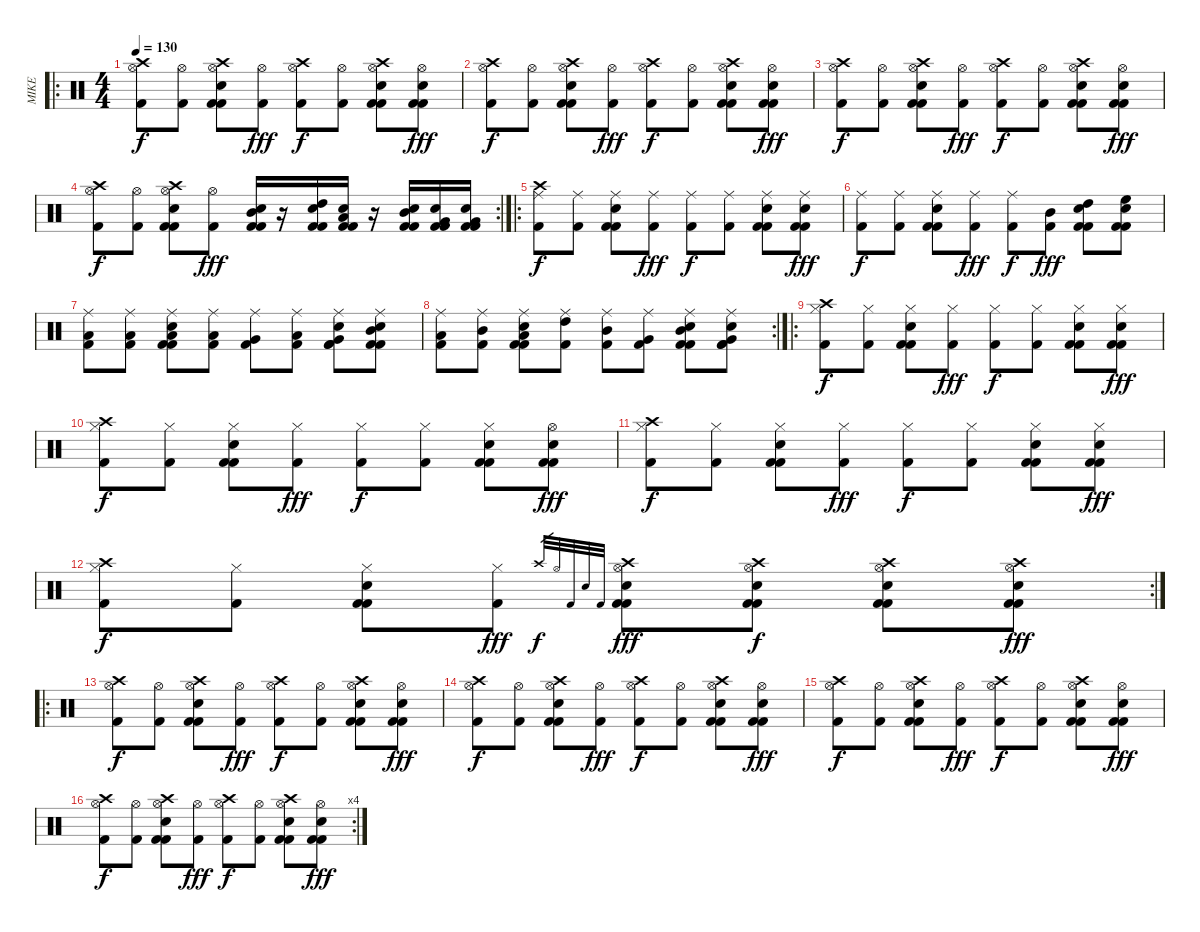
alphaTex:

\track ("MIKE" "MIKE") {instrument percussion}
\staff {score}
\articulation defaults
\ro
\ts (4 4)
\tempo 130
\clef neutral
\ks c
("Hi-Hat (open)" "Crash high (hit)" "Kick (hit) 2").8{dy f} ("Hi-Hat (open)" "Kick (hit) 2").8 ("Hi-Hat (open)" "Crash high (hit)" "Kick (hit) 2" "Electric Snare (hit)" "Kick (hit) 2").8 ("Hi-Hat (open)" "Kick (hit) 2").8{dy fff} ("Hi-Hat (open)" "Crash high (hit)" "Kick (hit) 2").8{dy f} ("Hi-Hat (open)" "Kick (hit) 2").8 ("Hi-Hat (open)" "Crash high (hit)" "Kick (hit) 2" "Electric Snare (hit)" "Kick (hit) 2").8 ("Hi-Hat (open)" "Kick (hit) 2" "Electric Snare (hit)" "Kick (hit) 2").8{dy fff} |
("Hi-Hat (open)" "Crash high (hit)" "Kick (hit) 2").8{dy f} ("Hi-Hat (open)" "Kick (hit) 2").8 ("Hi-Hat (open)" "Crash high (hit)" "Kick (hit) 2" "Electric Snare (hit)" "Kick (hit) 2").8 ("Hi-Hat (open)" "Kick (hit) 2").8{dy fff} ("Hi-Hat (open)" "Crash high (hit)" "Kick (hit) 2").8{dy f} ("Hi-Hat (open)" "Kick (hit) 2").8 ("Hi-Hat (open)" "Crash high (hit)" "Kick (hit) 2" "Electric Snare (hit)" "Kick (hit) 2").8 ("Hi-Hat (open)" "Kick (hit) 2" "Electric Snare (hit)" "Kick (hit) 2").8{dy fff} |
("Hi-Hat (open)" "Crash high (hit)" "Kick (hit) 2").8{dy f} ("Hi-Hat (open)" "Kick (hit) 2").8 ("Hi-Hat (open)" "Crash high (hit)" "Kick (hit) 2" "Electric Snare (hit)" "Kick (hit) 2").8 ("Hi-Hat (open)" "Kick (hit) 2").8{dy fff} ("Hi-Hat (open)" "Crash high (hit)" "Kick (hit) 2").8{dy f} ("Hi-Hat (open)" "Kick (hit) 2").8 ("Hi-Hat (open)" "Crash high (hit)" "Kick (hit) 2" "Electric Snare (hit)" "Kick (hit) 2").8 ("Hi-Hat (open)" "Kick (hit) 2" "Electric Snare (hit)" "Kick (hit) 2").8{dy fff} |
\rc 2
("Hi-Hat (open)" "Crash high (hit)" "Kick (hit) 2").8{dy f} ("Hi-Hat (open)" "Kick (hit) 2").8 ("Hi-Hat (open)" "Crash high (hit)" "Kick (hit) 2" "Electric Snare (hit)" "Kick (hit) 2").8 ("Hi-Hat (open)" "Kick (hit) 2").8{dy fff} ("Mid Tom (hit)" "Kick (hit) 2" "Electric Snare (hit)" "Kick (hit) 2").16 r.16 ("High Tom (hit)" "Kick (hit) 2" "Electric Snare (hit)" "Kick (hit) 2").16 ("Low Tom (hit)" "Kick (hit) 2" "Electric Snare (hit)" "Kick (hit) 2").16 r.16 ("Mid Tom (hit)" "Kick (hit) 2" "Electric Snare (hit)" "Kick (hit) 2").16 ("Very Low Tom (hit)" "Kick (hit) 2" "Electric Snare (hit)" "Kick (hit) 2").16 ("Very Low Tom (hit)" "Kick (hit) 2" "Electric Snare (hit)" "Kick (hit) 2").16 |
\ro
("Ride (middle)" "Crash high (hit)" "Kick (hit) 2").8{dy f} ("Ride (middle)" "Kick (hit) 2").8 ("Ride (middle)" "Kick (hit) 2" "Electric Snare (hit)" "Kick (hit) 2").8 ("Ride (middle)" "Kick (hit) 2").8{dy fff} ("Ride (middle)" "Kick (hit) 2").8{dy f} ("Ride (middle)" "Kick (hit) 2").8 ("Ride (middle)" "Kick (hit) 2" "Electric Snare (hit)" "Kick (hit) 2").8 ("Ride (middle)" "Kick (hit) 2" "Electric Snare (hit)" "Kick (hit) 2").8{dy fff} |
("Ride (middle)" "Kick (hit) 2").8{dy f} ("Ride (middle)" "Kick (hit) 2").8 ("Ride (middle)" "Kick (hit) 2" "Electric Snare (hit)" "Kick (hit) 2").8 ("Ride (middle)" "Kick (hit) 2").8{dy fff} ("Ride (middle)" "Kick (hit) 2").8{dy f} ("Mid Tom (hit)" "Kick (hit) 2").8{dy fff} ("High Tom (hit)" "Kick (hit) 2" "Electric Snare (hit)" "Kick (hit) 2").8 ("High Floor Tom (hit)" "Kick (hit) 2" "Electric Snare (hit)" "Kick (hit) 2").8 |
("Ride (middle)" "Low Floor Tom (hit)" "Kick (hit) 2").8 ("Ride (middle)" "Low Tom (hit)" "Kick (hit) 2").8 ("Ride (middle)" "Low Floor Tom (hit)" "Kick (hit) 2" "Electric Snare (hit)" "Kick (hit) 2").8 ("Ride (middle)" "Low Tom (hit)" "Kick (hit) 2").8 ("Ride (middle)" "Very Low Tom (hit)" "Kick (hit) 2").8 ("Ride (middle)" "Low Floor Tom (hit)" "Kick (hit) 2").8 ("Ride (middle)" "Very Low Tom (hit)" "Kick (hit) 2" "Electric Snare (hit)" "Kick (hit) 2").8 ("Ride (middle)" "Mid Tom (hit)" "Kick (hit) 2" "Electric Snare (hit)" "Kick (hit) 2").8 |
\rc 2
("Ride (middle)" "Low Tom (hit)" "Kick (hit) 2").8 ("Ride (middle)" "Mid Tom (hit)" "Kick (hit) 2").8 ("Ride (middle)" "Low Tom (hit)" "Kick (hit) 2" "Electric Snare (hit)" "Kick (hit) 2").8 ("Ride (middle)" "High Tom (hit)" "Kick (hit) 2").8 ("Ride (middle)" "Mid Tom (hit)" "Kick (hit) 2").8 ("Ride (middle)" "Very Low Tom (hit)" "Kick (hit) 2").8 ("Ride (middle)" "Mid Tom (hit)" "Kick (hit) 2" "Electric Snare (hit)" "Kick (hit) 2").8 ("Ride (middle)" "Very Low Tom (hit)" "Kick (hit) 2" "Electric Snare (hit)" "Kick (hit) 2").8 |
\ro
("Hi-Hat (closed)" "Crash high (hit)" "Kick (hit) 2").8{dy f} ("Hi-Hat (closed)" "Kick (hit) 2").8 ("Hi-Hat (closed)" "Kick (hit) 2" "Electric Snare (hit)" "Kick (hit) 2").8 ("Hi-Hat (closed)" "Kick (hit) 2").8{dy fff} ("Hi-Hat (closed)" "Kick (hit) 2").8{dy f} ("Hi-Hat (closed)" "Kick (hit) 2").8 ("Hi-Hat (closed)" "Kick (hit) 2" "Electric Snare (hit)" "Kick (hit) 2").8 ("Hi-Hat (closed)" "Kick (hit) 2" "Electric Snare (hit)" "Kick (hit) 2").8{dy fff} |
("Hi-Hat (closed)" "Crash high (hit)" "Kick (hit) 2").8{dy f} ("Hi-Hat (closed)" "Kick (hit) 2").8 ("Hi-Hat (closed)" "Kick (hit) 2" "Electric Snare (hit)" "Kick (hit) 2").8 ("Hi-Hat (closed)" "Kick (hit) 2").8{dy fff} ("Hi-Hat (closed)" "Kick (hit) 2").8{dy f} ("Hi-Hat (closed)" "Kick (hit) 2").8 ("Hi-Hat (closed)" "Kick (hit) 2" "Electric Snare (hit)" "Kick (hit) 2").8 ("Hi-Hat (open)" "Kick (hit) 2" "Electric Snare (hit)" "Kick (hit) 2").8{dy fff} |
("Hi-Hat (closed)" "Crash high (hit)" "Kick (hit) 2").8{dy f} ("Hi-Hat (closed)" "Kick (hit) 2").8 ("Hi-Hat (closed)" "Kick (hit) 2" "Electric Snare (hit)" "Kick (hit) 2").8 ("Hi-Hat (closed)" "Kick (hit) 2").8{dy fff} ("Hi-Hat (closed)" "Kick (hit) 2").8{dy f} ("Hi-Hat (closed)" "Kick (hit) 2").8 ("Hi-Hat (closed)" "Kick (hit) 2" "Electric Snare (hit)" "Kick (hit) 2").8 ("Hi-Hat (closed)" "Kick (hit) 2" "Electric Snare (hit)" "Kick (hit) 2").8{dy fff} |
\rc 2
("Hi-Hat (closed)" "Crash high (hit)" "Kick (hit) 2").8{dy f} ("Hi-Hat (closed)" "Kick (hit) 2").8 ("Hi-Hat (closed)" "Kick (hit) 2" "Electric Snare (hit)" "Kick (hit) 2").8 ("Hi-Hat (closed)" "Kick (hit) 2").8{dy fff} "Crash high (hit)".32{gr dy f} "Hi-Hat (open)".32{gr} "Kick (hit) 2".32{gr} "Electric Snare (hit)".32{gr} "Kick (hit) 2".32{gr} ("Crash high (hit)" "Hi-Hat (open)" "Kick (hit) 2" "Electric Snare (hit)" "Kick (hit) 2").8{dy fff} ("Crash high (hit)" "Hi-Hat (open)" "Kick (hit) 2" "Electric Snare (hit)" "Kick (hit) 2").8{dy f} ("Crash high (hit)" "Hi-Hat (open)" "Kick (hit) 2" "Electric Snare (hit)" "Kick (hit) 2").8 ("Crash high (hit)" "Hi-Hat (open)" "Kick (hit) 2" "Electric Snare (hit)" "Kick (hit) 2").8{dy fff} |
\ro
("Hi-Hat (open)" "Crash high (hit)" "Kick (hit) 2").8{dy f} ("Hi-Hat (open)" "Kick (hit) 2").8 ("Hi-Hat (open)" "Crash high (hit)" "Kick (hit) 2" "Electric Snare (hit)" "Kick (hit) 2").8 ("Hi-Hat (open)" "Kick (hit) 2").8{dy fff} ("Hi-Hat (open)" "Crash high (hit)" "Kick (hit) 2").8{dy f} ("Hi-Hat (open)" "Kick (hit) 2").8 ("Hi-Hat (open)" "Crash high (hit)" "Kick (hit) 2" "Electric Snare (hit)" "Kick (hit) 2").8 ("Hi-Hat (open)" "Kick (hit) 2" "Electric Snare (hit)" "Kick (hit) 2").8{dy fff} |
("Hi-Hat (open)" "Crash high (hit)" "Kick (hit) 2").8{dy f} ("Hi-Hat (open)" "Kick (hit) 2").8 ("Hi-Hat (open)" "Crash high (hit)" "Kick (hit) 2" "Electric Snare (hit)" "Kick (hit) 2").8 ("Hi-Hat (open)" "Kick (hit) 2").8{dy fff} ("Hi-Hat (open)" "Crash high (hit)" "Kick (hit) 2").8{dy f} ("Hi-Hat (open)" "Kick (hit) 2").8 ("Hi-Hat (open)" "Crash high (hit)" "Kick (hit) 2" "Electric Snare (hit)" "Kick (hit) 2").8 ("Hi-Hat (open)" "Kick (hit) 2" "Electric Snare (hit)" "Kick (hit) 2").8{dy fff} |
("Hi-Hat (open)" "Crash high (hit)" "Kick (hit) 2").8{dy f} ("Hi-Hat (open)" "Kick (hit) 2").8 ("Hi-Hat (open)" "Crash high (hit)" "Kick (hit) 2" "Electric Snare (hit)" "Kick (hit) 2").8 ("Hi-Hat (open)" "Kick (hit) 2").8{dy fff} ("Hi-Hat (open)" "Crash high (hit)" "Kick (hit) 2").8{dy f} ("Hi-Hat (open)" "Kick (hit) 2").8 ("Hi-Hat (open)" "Crash high (hit)" "Kick (hit) 2" "Electric Snare (hit)" "Kick (hit) 2").8 ("Hi-Hat (open)" "Kick (hit) 2" "Electric Snare (hit)" "Kick (hit) 2").8{dy fff} |
\rc 4
("Hi-Hat (open)" "Crash high (hit)" "Kick (hit) 2").8{dy f} ("Hi-Hat (open)" "Kick (hit) 2").8 ("Hi-Hat (open)" "Crash high (hit)" "Kick (hit) 2" "Electric Snare (hit)" "Kick (hit) 2").8 ("Hi-Hat (open)" "Kick (hit) 2").8{dy fff} ("Hi-Hat (open)" "Crash high (hit)" "Kick (hit) 2").8{dy f} ("Hi-Hat (open)" "Kick (hit) 2").8 ("Hi-Hat (open)" "Crash high (hit)" "Kick (hit) 2" "Electric Snare (hit)" "Kick (hit) 2").8 ("Hi-Hat (open)" "Kick (hit) 2" "Electric Snare (hit)" "Kick (hit) 2").8{dy fff}
